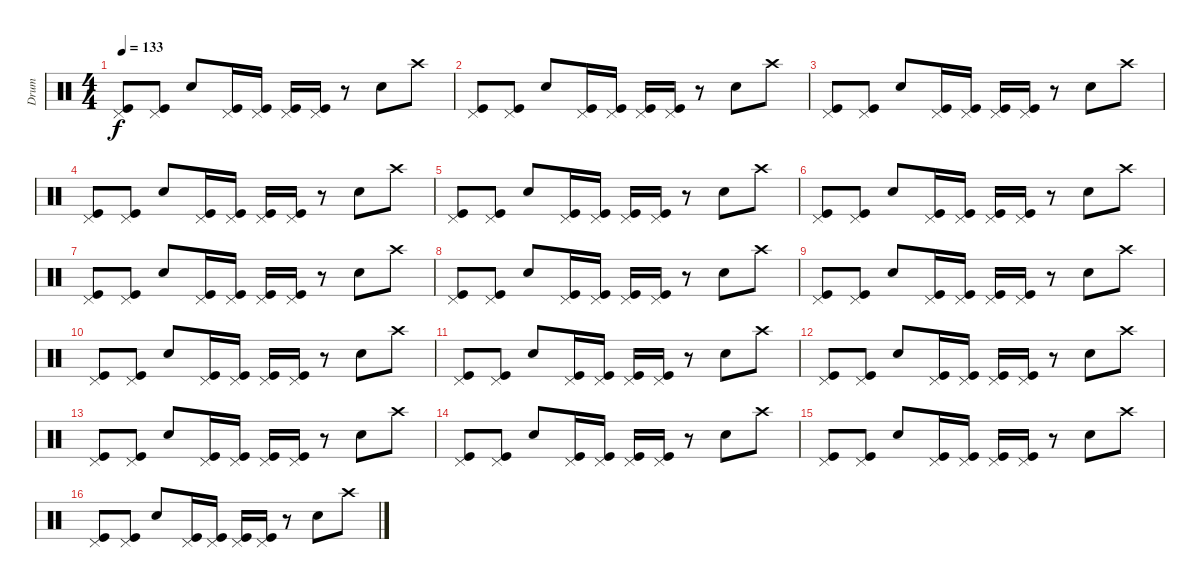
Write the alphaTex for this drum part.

\track ("Drum" "Drum") {instrument percussion}
\staff {score}
\articulation defaults
\ts (4 4)
\tempo 133
\clef neutral
\ks c
("Kick (hit)" "Pedal Hi-Hat (hit)").8{dy f} ("Kick (hit)" "Pedal Hi-Hat (hit)").8 "Snare (hit) 2".8 ("Pedal Hi-Hat (hit)" "Kick (hit)").16 ("Kick (hit)" "Pedal Hi-Hat (hit)").16 ("Kick (hit)" "Pedal Hi-Hat (hit)").16 ("Kick (hit)" "Pedal Hi-Hat (hit)").16 r.8 "Snare (hit) 2".8 "Crash high (hit)".8 |
("Kick (hit)" "Pedal Hi-Hat (hit)").8 ("Kick (hit)" "Pedal Hi-Hat (hit)").8 "Snare (hit) 2".8 ("Pedal Hi-Hat (hit)" "Kick (hit)").16 ("Kick (hit)" "Pedal Hi-Hat (hit)").16 ("Kick (hit)" "Pedal Hi-Hat (hit)").16 ("Kick (hit)" "Pedal Hi-Hat (hit)").16 r.8 "Snare (hit) 2".8 "Crash high (hit)".8 |
("Kick (hit)" "Pedal Hi-Hat (hit)").8 ("Kick (hit)" "Pedal Hi-Hat (hit)").8 "Snare (hit) 2".8 ("Pedal Hi-Hat (hit)" "Kick (hit)").16 ("Kick (hit)" "Pedal Hi-Hat (hit)").16 ("Kick (hit)" "Pedal Hi-Hat (hit)").16 ("Kick (hit)" "Pedal Hi-Hat (hit)").16 r.8 "Snare (hit) 2".8 "Crash high (hit)".8 |
("Kick (hit)" "Pedal Hi-Hat (hit)").8 ("Kick (hit)" "Pedal Hi-Hat (hit)").8 "Snare (hit) 2".8 ("Pedal Hi-Hat (hit)" "Kick (hit)").16 ("Kick (hit)" "Pedal Hi-Hat (hit)").16 ("Kick (hit)" "Pedal Hi-Hat (hit)").16 ("Kick (hit)" "Pedal Hi-Hat (hit)").16 r.8 "Snare (hit) 2".8 "Crash high (hit)".8 |
("Kick (hit)" "Pedal Hi-Hat (hit)").8 ("Kick (hit)" "Pedal Hi-Hat (hit)").8 "Snare (hit) 2".8 ("Pedal Hi-Hat (hit)" "Kick (hit)").16 ("Kick (hit)" "Pedal Hi-Hat (hit)").16 ("Kick (hit)" "Pedal Hi-Hat (hit)").16 ("Kick (hit)" "Pedal Hi-Hat (hit)").16 r.8 "Snare (hit) 2".8 "Crash high (hit)".8 |
("Kick (hit)" "Pedal Hi-Hat (hit)").8 ("Kick (hit)" "Pedal Hi-Hat (hit)").8 "Snare (hit) 2".8 ("Pedal Hi-Hat (hit)" "Kick (hit)").16 ("Kick (hit)" "Pedal Hi-Hat (hit)").16 ("Kick (hit)" "Pedal Hi-Hat (hit)").16 ("Kick (hit)" "Pedal Hi-Hat (hit)").16 r.8 "Snare (hit) 2".8 "Crash high (hit)".8 |
("Kick (hit)" "Pedal Hi-Hat (hit)").8 ("Kick (hit)" "Pedal Hi-Hat (hit)").8 "Snare (hit) 2".8 ("Pedal Hi-Hat (hit)" "Kick (hit)").16 ("Kick (hit)" "Pedal Hi-Hat (hit)").16 ("Kick (hit)" "Pedal Hi-Hat (hit)").16 ("Kick (hit)" "Pedal Hi-Hat (hit)").16 r.8 "Snare (hit) 2".8 "Crash high (hit)".8 |
("Kick (hit)" "Pedal Hi-Hat (hit)").8 ("Kick (hit)" "Pedal Hi-Hat (hit)").8 "Snare (hit) 2".8 ("Pedal Hi-Hat (hit)" "Kick (hit)").16 ("Kick (hit)" "Pedal Hi-Hat (hit)").16 ("Kick (hit)" "Pedal Hi-Hat (hit)").16 ("Kick (hit)" "Pedal Hi-Hat (hit)").16 r.8 "Snare (hit) 2".8 "Crash high (hit)".8 |
("Kick (hit)" "Pedal Hi-Hat (hit)").8 ("Kick (hit)" "Pedal Hi-Hat (hit)").8 "Snare (hit) 2".8 ("Pedal Hi-Hat (hit)" "Kick (hit)").16 ("Kick (hit)" "Pedal Hi-Hat (hit)").16 ("Kick (hit)" "Pedal Hi-Hat (hit)").16 ("Kick (hit)" "Pedal Hi-Hat (hit)").16 r.8 "Snare (hit) 2".8 "Crash high (hit)".8 |
("Kick (hit)" "Pedal Hi-Hat (hit)").8 ("Kick (hit)" "Pedal Hi-Hat (hit)").8 "Snare (hit) 2".8 ("Pedal Hi-Hat (hit)" "Kick (hit)").16 ("Kick (hit)" "Pedal Hi-Hat (hit)").16 ("Kick (hit)" "Pedal Hi-Hat (hit)").16 ("Kick (hit)" "Pedal Hi-Hat (hit)").16 r.8 "Snare (hit) 2".8 "Crash high (hit)".8 |
("Kick (hit)" "Pedal Hi-Hat (hit)").8 ("Kick (hit)" "Pedal Hi-Hat (hit)").8 "Snare (hit) 2".8 ("Pedal Hi-Hat (hit)" "Kick (hit)").16 ("Kick (hit)" "Pedal Hi-Hat (hit)").16 ("Kick (hit)" "Pedal Hi-Hat (hit)").16 ("Kick (hit)" "Pedal Hi-Hat (hit)").16 r.8 "Snare (hit) 2".8 "Crash high (hit)".8 |
("Kick (hit)" "Pedal Hi-Hat (hit)").8 ("Kick (hit)" "Pedal Hi-Hat (hit)").8 "Snare (hit) 2".8 ("Pedal Hi-Hat (hit)" "Kick (hit)").16 ("Kick (hit)" "Pedal Hi-Hat (hit)").16 ("Kick (hit)" "Pedal Hi-Hat (hit)").16 ("Kick (hit)" "Pedal Hi-Hat (hit)").16 r.8 "Snare (hit) 2".8 "Crash high (hit)".8 |
("Kick (hit)" "Pedal Hi-Hat (hit)").8 ("Kick (hit)" "Pedal Hi-Hat (hit)").8 "Snare (hit) 2".8 ("Pedal Hi-Hat (hit)" "Kick (hit)").16 ("Kick (hit)" "Pedal Hi-Hat (hit)").16 ("Kick (hit)" "Pedal Hi-Hat (hit)").16 ("Kick (hit)" "Pedal Hi-Hat (hit)").16 r.8 "Snare (hit) 2".8 "Crash high (hit)".8 |
("Kick (hit)" "Pedal Hi-Hat (hit)").8 ("Kick (hit)" "Pedal Hi-Hat (hit)").8 "Snare (hit) 2".8 ("Pedal Hi-Hat (hit)" "Kick (hit)").16 ("Kick (hit)" "Pedal Hi-Hat (hit)").16 ("Kick (hit)" "Pedal Hi-Hat (hit)").16 ("Kick (hit)" "Pedal Hi-Hat (hit)").16 r.8 "Snare (hit) 2".8 "Crash high (hit)".8 |
("Kick (hit)" "Pedal Hi-Hat (hit)").8 ("Kick (hit)" "Pedal Hi-Hat (hit)").8 "Snare (hit) 2".8 ("Pedal Hi-Hat (hit)" "Kick (hit)").16 ("Kick (hit)" "Pedal Hi-Hat (hit)").16 ("Kick (hit)" "Pedal Hi-Hat (hit)").16 ("Kick (hit)" "Pedal Hi-Hat (hit)").16 r.8 "Snare (hit) 2".8 "Crash high (hit)".8 |
("Kick (hit)" "Pedal Hi-Hat (hit)").8 ("Kick (hit)" "Pedal Hi-Hat (hit)").8 "Snare (hit) 2".8 ("Pedal Hi-Hat (hit)" "Kick (hit)").16 ("Kick (hit)" "Pedal Hi-Hat (hit)").16 ("Kick (hit)" "Pedal Hi-Hat (hit)").16 ("Kick (hit)" "Pedal Hi-Hat (hit)").16 r.8 "Snare (hit) 2".8 "Crash high (hit)".8
